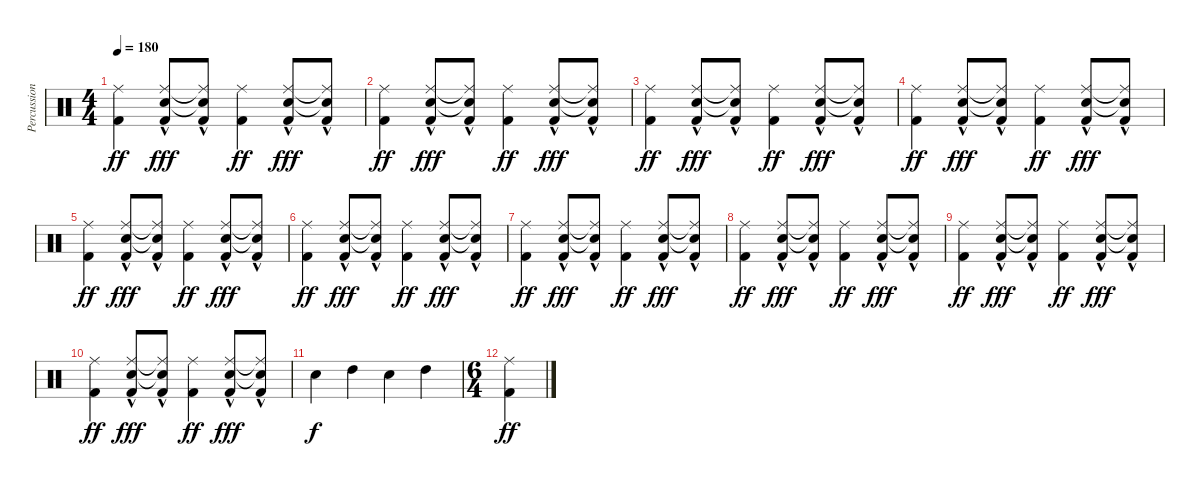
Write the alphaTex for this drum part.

\track ("Percussion" "Percussion") {instrument percussion}
\staff {score}
\articulation defaults
\ts (4 4)
\tempo 180
\clef neutral
\ks c
("Kick (hit) 2" "Ride (middle)").4{dy ff} ("Electric Snare (hit)" "Ride (middle)" "Kick (hit) 2"{hac}).8{dy fff} ("Electric Snare (hit)"{t} "Ride (middle)"{t} "Kick (hit) 2"{hac}).8 ("Kick (hit) 2" "Ride (middle)").4{dy ff} ("Electric Snare (hit)" "Ride (middle)" "Kick (hit) 2"{hac}).8{dy fff} ("Electric Snare (hit)"{t} "Ride (middle)"{t} "Kick (hit) 2"{hac}).8 |
("Kick (hit) 2" "Ride (middle)").4{dy ff} ("Electric Snare (hit)" "Ride (middle)" "Kick (hit) 2"{hac}).8{dy fff} ("Electric Snare (hit)"{t} "Ride (middle)"{t} "Kick (hit) 2"{hac}).8 ("Kick (hit) 2" "Ride (middle)").4{dy ff} ("Electric Snare (hit)" "Ride (middle)" "Kick (hit) 2"{hac}).8{dy fff} ("Electric Snare (hit)"{t} "Ride (middle)"{t} "Kick (hit) 2"{hac}).8 |
("Kick (hit) 2" "Ride (middle)").4{dy ff} ("Electric Snare (hit)" "Ride (middle)" "Kick (hit) 2"{hac}).8{dy fff} ("Electric Snare (hit)"{t} "Ride (middle)"{t} "Kick (hit) 2"{hac}).8 ("Kick (hit) 2" "Ride (middle)").4{dy ff} ("Electric Snare (hit)" "Ride (middle)" "Kick (hit) 2"{hac}).8{dy fff} ("Electric Snare (hit)"{t} "Ride (middle)"{t} "Kick (hit) 2"{hac}).8 |
("Kick (hit) 2" "Ride (middle)").4{dy ff} ("Electric Snare (hit)" "Ride (middle)" "Kick (hit) 2"{hac}).8{dy fff} ("Electric Snare (hit)"{t} "Ride (middle)"{t} "Kick (hit) 2"{hac}).8 ("Kick (hit) 2" "Ride (middle)").4{dy ff} ("Electric Snare (hit)" "Ride (middle)" "Kick (hit) 2"{hac}).8{dy fff} ("Electric Snare (hit)"{t} "Ride (middle)"{t} "Kick (hit) 2"{hac}).8 |
("Kick (hit) 2" "Ride (middle)").4{dy ff} ("Electric Snare (hit)" "Ride (middle)" "Kick (hit) 2"{hac}).8{dy fff} ("Electric Snare (hit)"{t} "Ride (middle)"{t} "Kick (hit) 2"{hac}).8 ("Kick (hit) 2" "Ride (middle)").4{dy ff} ("Electric Snare (hit)" "Ride (middle)" "Kick (hit) 2"{hac}).8{dy fff} ("Electric Snare (hit)"{t} "Ride (middle)"{t} "Kick (hit) 2"{hac}).8 |
("Kick (hit) 2" "Ride (middle)").4{dy ff} ("Electric Snare (hit)" "Ride (middle)" "Kick (hit) 2"{hac}).8{dy fff} ("Electric Snare (hit)"{t} "Ride (middle)"{t} "Kick (hit) 2"{hac}).8 ("Kick (hit) 2" "Ride (middle)").4{dy ff} ("Electric Snare (hit)" "Ride (middle)" "Kick (hit) 2"{hac}).8{dy fff} ("Electric Snare (hit)"{t} "Ride (middle)"{t} "Kick (hit) 2"{hac}).8 |
("Kick (hit) 2" "Ride (middle)").4{dy ff} ("Electric Snare (hit)" "Ride (middle)" "Kick (hit) 2"{hac}).8{dy fff} ("Electric Snare (hit)"{t} "Ride (middle)"{t} "Kick (hit) 2"{hac}).8 ("Kick (hit) 2" "Ride (middle)").4{dy ff} ("Electric Snare (hit)" "Ride (middle)" "Kick (hit) 2"{hac}).8{dy fff} ("Electric Snare (hit)"{t} "Ride (middle)"{t} "Kick (hit) 2"{hac}).8 |
("Kick (hit) 2" "Ride (middle)").4{dy ff} ("Electric Snare (hit)" "Ride (middle)" "Kick (hit) 2"{hac}).8{dy fff} ("Electric Snare (hit)"{t} "Ride (middle)"{t} "Kick (hit) 2"{hac}).8 ("Kick (hit) 2" "Ride (middle)").4{dy ff} ("Electric Snare (hit)" "Ride (middle)" "Kick (hit) 2"{hac}).8{dy fff} ("Electric Snare (hit)"{t} "Ride (middle)"{t} "Kick (hit) 2"{hac}).8 |
("Kick (hit) 2" "Ride (middle)").4{dy ff} ("Electric Snare (hit)" "Ride (middle)" "Kick (hit) 2"{hac}).8{dy fff} ("Electric Snare (hit)"{t} "Ride (middle)"{t} "Kick (hit) 2"{hac}).8 ("Kick (hit) 2" "Ride (middle)").4{dy ff} ("Electric Snare (hit)" "Ride (middle)" "Kick (hit) 2"{hac}).8{dy fff} ("Electric Snare (hit)"{t} "Ride (middle)"{t} "Kick (hit) 2"{hac}).8 |
("Kick (hit) 2" "Ride (middle)").4{dy ff} ("Electric Snare (hit)" "Ride (middle)" "Kick (hit) 2"{hac}).8{dy fff} ("Electric Snare (hit)"{t} "Ride (middle)"{t} "Kick (hit) 2"{hac}).8 ("Kick (hit) 2" "Ride (middle)").4{dy ff} ("Electric Snare (hit)" "Ride (middle)" "Kick (hit) 2"{hac}).8{dy fff} ("Electric Snare (hit)"{t} "Ride (middle)"{t} "Kick (hit) 2"{hac}).8 |
"Electric Snare (hit)".4{dy f} "High Tom (hit)".4 "Electric Snare (hit)".4 "High Tom (hit)".4 |
\ts (6 4)
("Kick (hit) 2" "Ride (middle)").4{dy ff}
